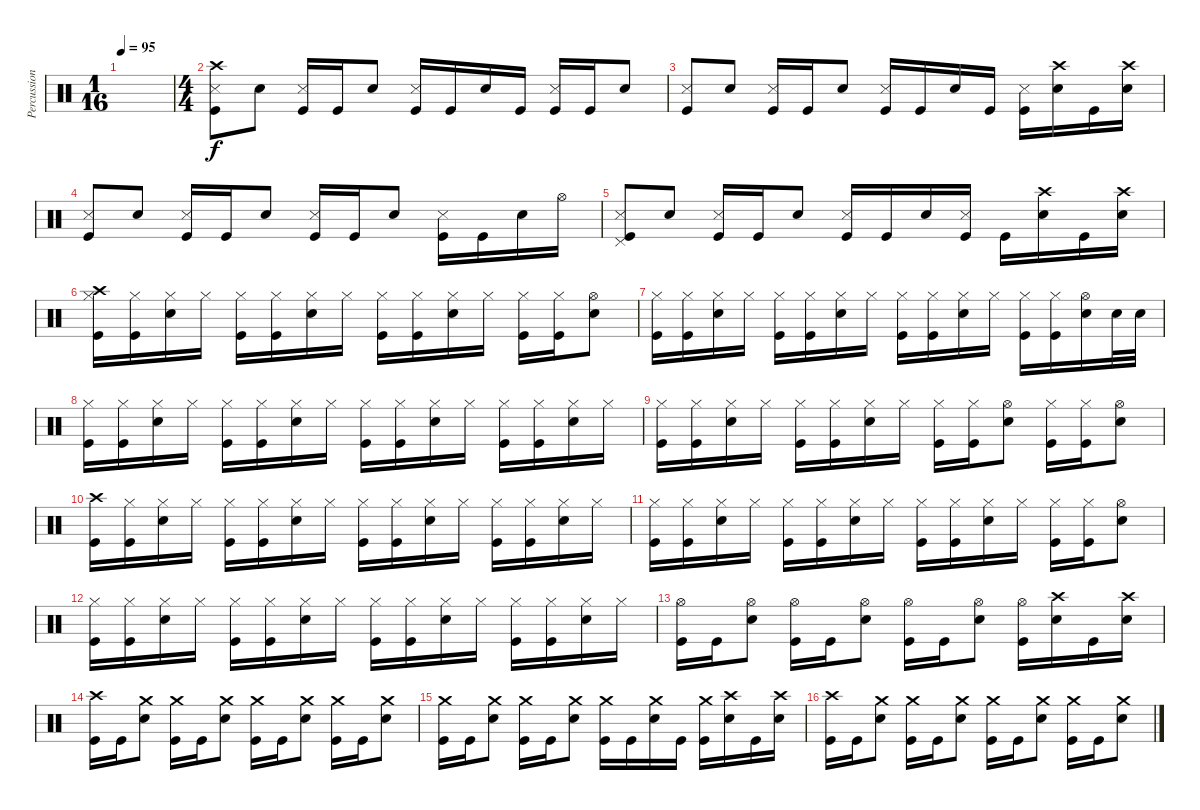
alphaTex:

\track ("Percussion" "Percussion") {instrument percussion}
\staff {score}
\articulation defaults
\ts (1 16)
\tempo 95
\clef neutral
\ks c
|
\ts (4 4)
("Crash high (hit)" "Snare (side stick) 3" "Kick (hit)").8 "Electric Snare (hit)".8 ("Snare (side stick) 3" "Kick (hit)").16 "Kick (hit)".16 "Electric Snare (hit)".8 ("Snare (side stick) 3" "Kick (hit)").16 "Kick (hit)".16 "Electric Snare (hit)".16 "Kick (hit)".16 ("Snare (side stick) 3" "Kick (hit)").16 "Kick (hit)".16 "Electric Snare (hit)".8 |
("Snare (side stick) 3" "Kick (hit)").8 "Electric Snare (hit)".8 ("Snare (side stick) 3" "Kick (hit)").16 "Kick (hit)".16 "Electric Snare (hit)".8 ("Snare (side stick) 3" "Kick (hit)").16 "Kick (hit)".16 "Electric Snare (hit)".16 "Kick (hit)".16 ("Snare (side stick) 3" "Kick (hit)").16 ("Crash high (hit)" "Electric Snare (hit)").16 "Kick (hit)".16 ("Crash high (hit)" "Electric Snare (hit)").16 |
("Snare (side stick) 3" "Kick (hit)").8 "Electric Snare (hit)".8 ("Snare (side stick) 3" "Kick (hit)").16 "Kick (hit)".16 "Electric Snare (hit)".8 ("Snare (side stick) 3" "Kick (hit)").16 "Kick (hit)".16 "Electric Snare (hit)".8 ("Snare (side stick) 3" "Kick (hit)").16 "Kick (hit)".16 "Electric Snare (hit)".16 "Hi-Hat (open)".16 |
("Pedal Hi-Hat (hit)" "Snare (side stick) 3" "Kick (hit)").8 "Electric Snare (hit)".8 ("Snare (side stick) 3" "Kick (hit)").16 "Kick (hit)".16 "Electric Snare (hit)".8 ("Snare (side stick) 3" "Kick (hit)").16 "Kick (hit)".16 "Electric Snare (hit)".16 ("Snare (side stick) 3" "Kick (hit)").16 "Kick (hit)".16 ("Crash high (hit)" "Electric Snare (hit)").16 "Kick (hit)".16 ("Crash high (hit)" "Electric Snare (hit)").16 |
("Crash high (hit)" "Hi-Hat (closed)" "Kick (hit)").16 ("Hi-Hat (closed)" "Kick (hit)").16 ("Hi-Hat (closed)" "Electric Snare (hit)").16 "Hi-Hat (closed)".16 ("Hi-Hat (closed)" "Kick (hit)").16 ("Hi-Hat (closed)" "Kick (hit)").16 ("Hi-Hat (closed)" "Electric Snare (hit)").16 "Hi-Hat (closed)".16 ("Hi-Hat (closed)" "Kick (hit)").16 ("Hi-Hat (closed)" "Kick (hit)").16 ("Hi-Hat (closed)" "Electric Snare (hit)").16 "Hi-Hat (closed)".16 ("Hi-Hat (closed)" "Kick (hit)").16 ("Hi-Hat (closed)" "Kick (hit)").16 ("Hi-Hat (open)" "Electric Snare (hit)").8 |
("Hi-Hat (closed)" "Kick (hit)").16 ("Hi-Hat (closed)" "Kick (hit)").16 ("Hi-Hat (closed)" "Electric Snare (hit)").16 "Hi-Hat (closed)".16 ("Hi-Hat (closed)" "Kick (hit)").16 ("Hi-Hat (closed)" "Kick (hit)").16 ("Hi-Hat (closed)" "Electric Snare (hit)").16 "Hi-Hat (closed)".16 ("Hi-Hat (closed)" "Kick (hit)").16 ("Hi-Hat (closed)" "Kick (hit)").16 ("Hi-Hat (closed)" "Electric Snare (hit)").16 "Hi-Hat (closed)".16 ("Hi-Hat (closed)" "Kick (hit)").16 ("Hi-Hat (closed)" "Kick (hit)").16 ("Hi-Hat (open)" "Electric Snare (hit)").16 "Electric Snare (hit)".32 "Electric Snare (hit)".32 |
("Hi-Hat (closed)" "Kick (hit)").16 ("Hi-Hat (closed)" "Kick (hit)").16 ("Hi-Hat (closed)" "Electric Snare (hit)").16 "Hi-Hat (closed)".16 ("Hi-Hat (closed)" "Kick (hit)").16 ("Hi-Hat (closed)" "Kick (hit)").16 ("Hi-Hat (closed)" "Electric Snare (hit)").16 "Hi-Hat (closed)".16 ("Hi-Hat (closed)" "Kick (hit)").16 ("Hi-Hat (closed)" "Kick (hit)").16 ("Hi-Hat (closed)" "Electric Snare (hit)").16 "Hi-Hat (closed)".16 ("Hi-Hat (closed)" "Kick (hit)").16 ("Hi-Hat (closed)" "Kick (hit)").16 ("Hi-Hat (closed)" "Electric Snare (hit)").16 "Hi-Hat (closed)".16 |
("Hi-Hat (closed)" "Kick (hit)").16 ("Hi-Hat (closed)" "Kick (hit)").16 ("Hi-Hat (closed)" "Electric Snare (hit)").16 "Hi-Hat (closed)".16 ("Hi-Hat (closed)" "Kick (hit)").16 ("Hi-Hat (closed)" "Kick (hit)").16 ("Hi-Hat (closed)" "Electric Snare (hit)").16 "Hi-Hat (closed)".16 ("Hi-Hat (closed)" "Kick (hit)").16 ("Hi-Hat (closed)" "Kick (hit)").16 ("Hi-Hat (open)" "Electric Snare (hit)").8 ("Hi-Hat (closed)" "Kick (hit)").16 ("Hi-Hat (closed)" "Kick (hit)").16 ("Hi-Hat (open)" "Electric Snare (hit)").8 |
("Crash high (hit)" "Kick (hit)").16 ("Hi-Hat (closed)" "Kick (hit)").16 ("Hi-Hat (closed)" "Electric Snare (hit)").16 "Hi-Hat (closed)".16 ("Hi-Hat (closed)" "Kick (hit)").16 ("Hi-Hat (closed)" "Kick (hit)").16 ("Hi-Hat (closed)" "Electric Snare (hit)").16 "Hi-Hat (closed)".16 ("Hi-Hat (closed)" "Kick (hit)").16 ("Hi-Hat (closed)" "Kick (hit)").16 ("Hi-Hat (closed)" "Electric Snare (hit)").16 "Hi-Hat (closed)".16 ("Hi-Hat (closed)" "Kick (hit)").16 ("Hi-Hat (closed)" "Kick (hit)").16 ("Hi-Hat (closed)" "Electric Snare (hit)").16 "Hi-Hat (closed)".16 |
("Hi-Hat (closed)" "Kick (hit)").16 ("Hi-Hat (closed)" "Kick (hit)").16 ("Hi-Hat (closed)" "Electric Snare (hit)").16 "Hi-Hat (closed)".16 ("Hi-Hat (closed)" "Kick (hit)").16 ("Hi-Hat (closed)" "Kick (hit)").16 ("Hi-Hat (closed)" "Electric Snare (hit)").16 "Hi-Hat (closed)".16 ("Hi-Hat (closed)" "Kick (hit)").16 ("Hi-Hat (closed)" "Kick (hit)").16 ("Hi-Hat (closed)" "Electric Snare (hit)").16 "Hi-Hat (closed)".16 ("Hi-Hat (closed)" "Kick (hit)").16 ("Hi-Hat (closed)" "Kick (hit)").16 ("Hi-Hat (open)" "Electric Snare (hit)").8 |
("Hi-Hat (closed)" "Kick (hit)").16 ("Hi-Hat (closed)" "Kick (hit)").16 ("Hi-Hat (closed)" "Electric Snare (hit)").16 "Hi-Hat (closed)".16 ("Hi-Hat (closed)" "Kick (hit)").16 ("Hi-Hat (closed)" "Kick (hit)").16 ("Hi-Hat (closed)" "Electric Snare (hit)").16 "Hi-Hat (closed)".16 ("Hi-Hat (closed)" "Kick (hit)").16 ("Hi-Hat (closed)" "Kick (hit)").16 ("Hi-Hat (closed)" "Electric Snare (hit)").16 "Hi-Hat (closed)".16 ("Hi-Hat (closed)" "Kick (hit)").16 ("Hi-Hat (closed)" "Kick (hit)").16 ("Hi-Hat (closed)" "Electric Snare (hit)").16 "Hi-Hat (closed)".16 |
("Hi-Hat (open)" "Kick (hit)").16 "Kick (hit)".16 ("Hi-Hat (open)" "Electric Snare (hit)").8 ("Hi-Hat (open)" "Kick (hit)").16 "Kick (hit)".16 ("Hi-Hat (open)" "Electric Snare (hit)").8 ("Hi-Hat (open)" "Kick (hit)").16 "Kick (hit)".16 ("Hi-Hat (open)" "Electric Snare (hit)").8 ("Hi-Hat (open)" "Kick (hit)").16 ("Crash high (hit)" "Electric Snare (hit)").16 "Kick (hit)".16 ("Crash high (hit)" "Electric Snare (hit)").16 |
("Crash high (hit)" "Kick (hit)").16 "Kick (hit)".16 ("Crash medium (hit)" "Electric Snare (hit)").8 ("Crash medium (hit)" "Kick (hit)").16 "Kick (hit)".16 ("Crash medium (hit)" "Electric Snare (hit)").8 ("Crash medium (hit)" "Kick (hit)").16 "Kick (hit)".16 ("Crash medium (hit)" "Electric Snare (hit)").8 ("Crash medium (hit)" "Kick (hit)").16 "Kick (hit)".16 ("Crash medium (hit)" "Electric Snare (hit)").8 |
("Crash medium (hit)" "Kick (hit)").16 "Kick (hit)".16 ("Crash medium (hit)" "Electric Snare (hit)").8 ("Crash medium (hit)" "Kick (hit)").16 "Kick (hit)".16 ("Crash medium (hit)" "Electric Snare (hit)").8 ("Crash medium (hit)" "Kick (hit)").16 "Kick (hit)".16 ("Crash medium (hit)" "Electric Snare (hit)").16 "Kick (hit)".16 ("Crash medium (hit)" "Kick (hit)").16 ("Crash high (hit)" "Electric Snare (hit)").16 "Kick (hit)".16 ("Crash high (hit)" "Electric Snare (hit)").16 |
("Crash high (hit)" "Kick (hit)").16 "Kick (hit)".16 ("Crash medium (hit)" "Electric Snare (hit)").8 ("Crash medium (hit)" "Kick (hit)").16 "Kick (hit)".16 ("Crash medium (hit)" "Electric Snare (hit)").8 ("Crash medium (hit)" "Kick (hit)").16 "Kick (hit)".16 ("Crash medium (hit)" "Electric Snare (hit)").8 ("Crash medium (hit)" "Kick (hit)").16 "Kick (hit)".16 ("Crash medium (hit)" "Electric Snare (hit)").8
